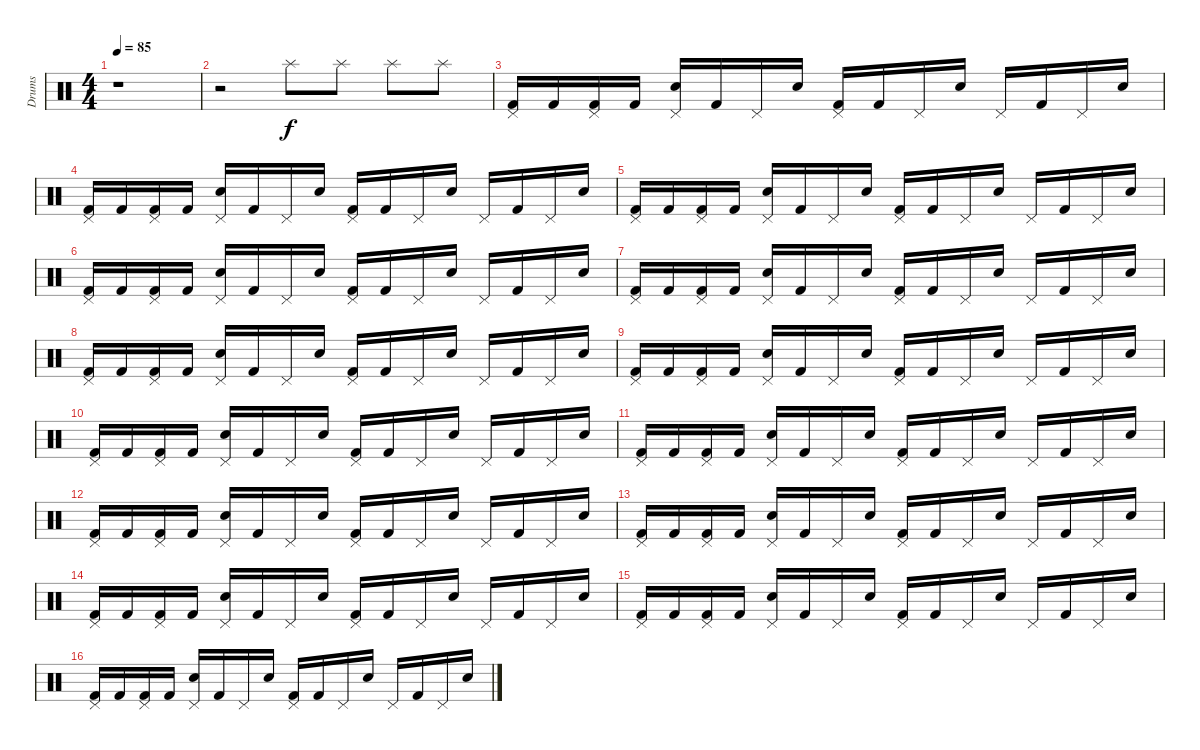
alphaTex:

\track ("Drums" "Drums") {instrument percussion}
\staff {score}
\articulation defaults
\ts (4 4)
\tempo 85
\clef neutral
\ks c
r.1{dy f} |
r.2 "Splash (hit)".8 "Splash (hit)".8 "Splash (hit)".8 "Splash (hit)".8 |
("Pedal Hi-Hat (hit)" "Kick (hit) 2").16 "Kick (hit) 2".16 ("Pedal Hi-Hat (hit)" "Kick (hit) 2").16 "Kick (hit) 2".16 ("Pedal Hi-Hat (hit)" "Snare (hit) 2").16 "Kick (hit) 2".16 "Pedal Hi-Hat (hit)".16 "Snare (hit) 2".16 ("Pedal Hi-Hat (hit)" "Kick (hit) 2").16 "Kick (hit) 2".16 "Pedal Hi-Hat (hit)".16 "Snare (hit) 2".16 "Pedal Hi-Hat (hit)".16 "Kick (hit) 2".16 "Pedal Hi-Hat (hit)".16 "Snare (hit) 2".16 |
("Pedal Hi-Hat (hit)" "Kick (hit) 2").16 "Kick (hit) 2".16 ("Pedal Hi-Hat (hit)" "Kick (hit) 2").16 "Kick (hit) 2".16 ("Pedal Hi-Hat (hit)" "Snare (hit) 2").16 "Kick (hit) 2".16 "Pedal Hi-Hat (hit)".16 "Snare (hit) 2".16 ("Pedal Hi-Hat (hit)" "Kick (hit) 2").16 "Kick (hit) 2".16 "Pedal Hi-Hat (hit)".16 "Snare (hit) 2".16 "Pedal Hi-Hat (hit)".16 "Kick (hit) 2".16 "Pedal Hi-Hat (hit)".16 "Snare (hit) 2".16 |
("Pedal Hi-Hat (hit)" "Kick (hit) 2").16 "Kick (hit) 2".16 ("Pedal Hi-Hat (hit)" "Kick (hit) 2").16 "Kick (hit) 2".16 ("Pedal Hi-Hat (hit)" "Snare (hit) 2").16 "Kick (hit) 2".16 "Pedal Hi-Hat (hit)".16 "Snare (hit) 2".16 ("Pedal Hi-Hat (hit)" "Kick (hit) 2").16 "Kick (hit) 2".16 "Pedal Hi-Hat (hit)".16 "Snare (hit) 2".16 "Pedal Hi-Hat (hit)".16 "Kick (hit) 2".16 "Pedal Hi-Hat (hit)".16 "Snare (hit) 2".16 |
("Pedal Hi-Hat (hit)" "Kick (hit) 2").16 "Kick (hit) 2".16 ("Pedal Hi-Hat (hit)" "Kick (hit) 2").16 "Kick (hit) 2".16 ("Pedal Hi-Hat (hit)" "Snare (hit) 2").16 "Kick (hit) 2".16 "Pedal Hi-Hat (hit)".16 "Snare (hit) 2".16 ("Pedal Hi-Hat (hit)" "Kick (hit) 2").16 "Kick (hit) 2".16 "Pedal Hi-Hat (hit)".16 "Snare (hit) 2".16 "Pedal Hi-Hat (hit)".16 "Kick (hit) 2".16 "Pedal Hi-Hat (hit)".16 "Snare (hit) 2".16 |
("Pedal Hi-Hat (hit)" "Kick (hit) 2").16 "Kick (hit) 2".16 ("Pedal Hi-Hat (hit)" "Kick (hit) 2").16 "Kick (hit) 2".16 ("Pedal Hi-Hat (hit)" "Snare (hit) 2").16 "Kick (hit) 2".16 "Pedal Hi-Hat (hit)".16 "Snare (hit) 2".16 ("Pedal Hi-Hat (hit)" "Kick (hit) 2").16 "Kick (hit) 2".16 "Pedal Hi-Hat (hit)".16 "Snare (hit) 2".16 "Pedal Hi-Hat (hit)".16 "Kick (hit) 2".16 "Pedal Hi-Hat (hit)".16 "Snare (hit) 2".16 |
("Pedal Hi-Hat (hit)" "Kick (hit) 2").16 "Kick (hit) 2".16 ("Pedal Hi-Hat (hit)" "Kick (hit) 2").16 "Kick (hit) 2".16 ("Pedal Hi-Hat (hit)" "Snare (hit) 2").16 "Kick (hit) 2".16 "Pedal Hi-Hat (hit)".16 "Snare (hit) 2".16 ("Pedal Hi-Hat (hit)" "Kick (hit) 2").16 "Kick (hit) 2".16 "Pedal Hi-Hat (hit)".16 "Snare (hit) 2".16 "Pedal Hi-Hat (hit)".16 "Kick (hit) 2".16 "Pedal Hi-Hat (hit)".16 "Snare (hit) 2".16 |
("Pedal Hi-Hat (hit)" "Kick (hit) 2").16 "Kick (hit) 2".16 ("Pedal Hi-Hat (hit)" "Kick (hit) 2").16 "Kick (hit) 2".16 ("Pedal Hi-Hat (hit)" "Snare (hit) 2").16 "Kick (hit) 2".16 "Pedal Hi-Hat (hit)".16 "Snare (hit) 2".16 ("Pedal Hi-Hat (hit)" "Kick (hit) 2").16 "Kick (hit) 2".16 "Pedal Hi-Hat (hit)".16 "Snare (hit) 2".16 "Pedal Hi-Hat (hit)".16 "Kick (hit) 2".16 "Pedal Hi-Hat (hit)".16 "Snare (hit) 2".16 |
("Pedal Hi-Hat (hit)" "Kick (hit) 2").16 "Kick (hit) 2".16 ("Pedal Hi-Hat (hit)" "Kick (hit) 2").16 "Kick (hit) 2".16 ("Pedal Hi-Hat (hit)" "Snare (hit) 2").16 "Kick (hit) 2".16 "Pedal Hi-Hat (hit)".16 "Snare (hit) 2".16 ("Pedal Hi-Hat (hit)" "Kick (hit) 2").16 "Kick (hit) 2".16 "Pedal Hi-Hat (hit)".16 "Snare (hit) 2".16 "Pedal Hi-Hat (hit)".16 "Kick (hit) 2".16 "Pedal Hi-Hat (hit)".16 "Snare (hit) 2".16 |
("Pedal Hi-Hat (hit)" "Kick (hit) 2").16 "Kick (hit) 2".16 ("Pedal Hi-Hat (hit)" "Kick (hit) 2").16 "Kick (hit) 2".16 ("Pedal Hi-Hat (hit)" "Snare (hit) 2").16 "Kick (hit) 2".16 "Pedal Hi-Hat (hit)".16 "Snare (hit) 2".16 ("Pedal Hi-Hat (hit)" "Kick (hit) 2").16 "Kick (hit) 2".16 "Pedal Hi-Hat (hit)".16 "Snare (hit) 2".16 "Pedal Hi-Hat (hit)".16 "Kick (hit) 2".16 "Pedal Hi-Hat (hit)".16 "Snare (hit) 2".16 |
("Pedal Hi-Hat (hit)" "Kick (hit) 2").16 "Kick (hit) 2".16 ("Pedal Hi-Hat (hit)" "Kick (hit) 2").16 "Kick (hit) 2".16 ("Pedal Hi-Hat (hit)" "Snare (hit) 2").16 "Kick (hit) 2".16 "Pedal Hi-Hat (hit)".16 "Snare (hit) 2".16 ("Pedal Hi-Hat (hit)" "Kick (hit) 2").16 "Kick (hit) 2".16 "Pedal Hi-Hat (hit)".16 "Snare (hit) 2".16 "Pedal Hi-Hat (hit)".16 "Kick (hit) 2".16 "Pedal Hi-Hat (hit)".16 "Snare (hit) 2".16 |
("Pedal Hi-Hat (hit)" "Kick (hit) 2").16 "Kick (hit) 2".16 ("Pedal Hi-Hat (hit)" "Kick (hit) 2").16 "Kick (hit) 2".16 ("Pedal Hi-Hat (hit)" "Snare (hit) 2").16 "Kick (hit) 2".16 "Pedal Hi-Hat (hit)".16 "Snare (hit) 2".16 ("Pedal Hi-Hat (hit)" "Kick (hit) 2").16 "Kick (hit) 2".16 "Pedal Hi-Hat (hit)".16 "Snare (hit) 2".16 "Pedal Hi-Hat (hit)".16 "Kick (hit) 2".16 "Pedal Hi-Hat (hit)".16 "Snare (hit) 2".16 |
("Pedal Hi-Hat (hit)" "Kick (hit) 2").16 "Kick (hit) 2".16 ("Pedal Hi-Hat (hit)" "Kick (hit) 2").16 "Kick (hit) 2".16 ("Pedal Hi-Hat (hit)" "Snare (hit) 2").16 "Kick (hit) 2".16 "Pedal Hi-Hat (hit)".16 "Snare (hit) 2".16 ("Pedal Hi-Hat (hit)" "Kick (hit) 2").16 "Kick (hit) 2".16 "Pedal Hi-Hat (hit)".16 "Snare (hit) 2".16 "Pedal Hi-Hat (hit)".16 "Kick (hit) 2".16 "Pedal Hi-Hat (hit)".16 "Snare (hit) 2".16 |
("Pedal Hi-Hat (hit)" "Kick (hit) 2").16 "Kick (hit) 2".16 ("Pedal Hi-Hat (hit)" "Kick (hit) 2").16 "Kick (hit) 2".16 ("Pedal Hi-Hat (hit)" "Snare (hit) 2").16 "Kick (hit) 2".16 "Pedal Hi-Hat (hit)".16 "Snare (hit) 2".16 ("Pedal Hi-Hat (hit)" "Kick (hit) 2").16 "Kick (hit) 2".16 "Pedal Hi-Hat (hit)".16 "Snare (hit) 2".16 "Pedal Hi-Hat (hit)".16 "Kick (hit) 2".16 "Pedal Hi-Hat (hit)".16 "Snare (hit) 2".16 |
("Pedal Hi-Hat (hit)" "Kick (hit) 2").16 "Kick (hit) 2".16 ("Pedal Hi-Hat (hit)" "Kick (hit) 2").16 "Kick (hit) 2".16 ("Pedal Hi-Hat (hit)" "Snare (hit) 2").16 "Kick (hit) 2".16 "Pedal Hi-Hat (hit)".16 "Snare (hit) 2".16 ("Pedal Hi-Hat (hit)" "Kick (hit) 2").16 "Kick (hit) 2".16 "Pedal Hi-Hat (hit)".16 "Snare (hit) 2".16 "Pedal Hi-Hat (hit)".16 "Kick (hit) 2".16 "Pedal Hi-Hat (hit)".16 "Snare (hit) 2".16
